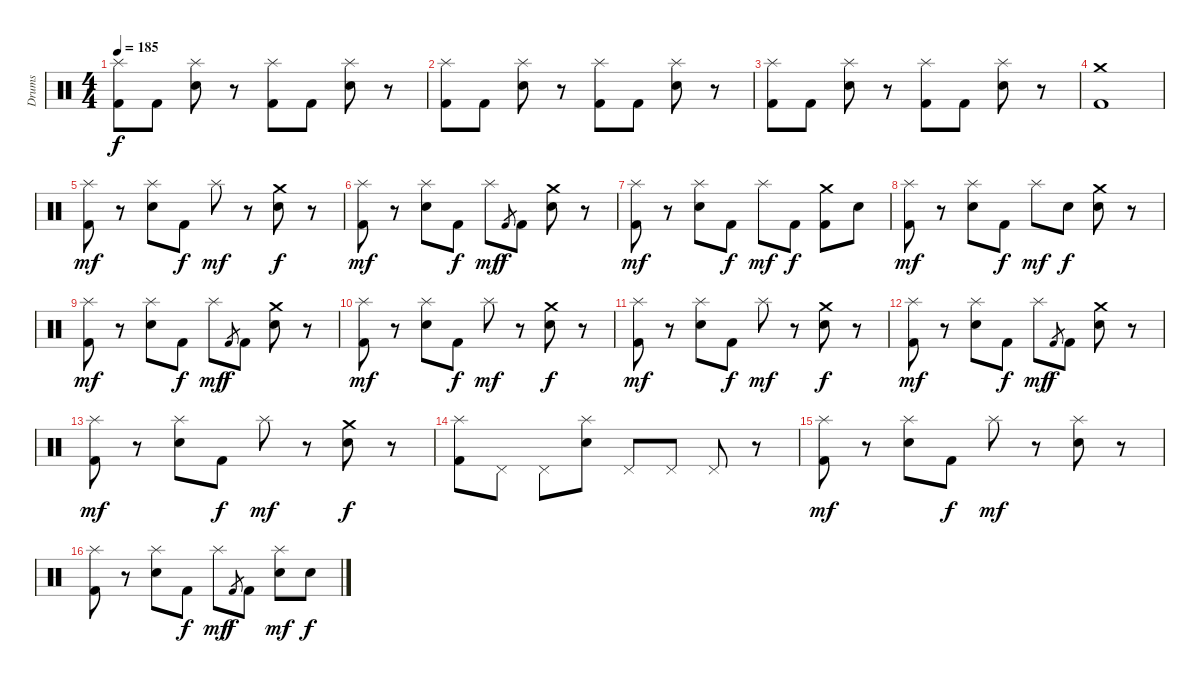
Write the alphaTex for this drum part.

\track ("Drums" "Drums") {instrument percussion}
\staff {score}
\articulation defaults
\ts (4 4)
\tempo 185
\clef neutral
\ks c
("Splash (hit)" "Kick (hit) 2").8{dy f} "Kick (hit) 2".8 ("Splash (hit)" "Electric Snare (hit)").8 r.8 ("Splash (hit)" "Kick (hit) 2").8 "Kick (hit) 2".8 ("Splash (hit)" "Electric Snare (hit)").8 r.8 |
("Splash (hit)" "Kick (hit) 2").8 "Kick (hit) 2".8 ("Splash (hit)" "Electric Snare (hit)").8 r.8 ("Splash (hit)" "Kick (hit) 2").8 "Kick (hit) 2".8 ("Splash (hit)" "Electric Snare (hit)").8 r.8 |
("Splash (hit)" "Kick (hit) 2").8 "Kick (hit) 2".8 ("Splash (hit)" "Electric Snare (hit)").8 r.8 ("Splash (hit)" "Kick (hit) 2").8 "Kick (hit) 2".8 ("Splash (hit)" "Electric Snare (hit)").8 r.8 |
("Crash medium (hit)" "Kick (hit) 2").1 |
("Splash (hit)" "Kick (hit) 2").8{dy mf} r.8 ("Splash (hit)" "Electric Snare (hit)").8 "Kick (hit) 2".8{dy f} "Splash (hit)".8{dy mf} r.8 ("Crash medium (hit)" "Electric Snare (hit)").8{dy f} r.8 |
("Splash (hit)" "Kick (hit) 2").8{dy mf} r.8 ("Splash (hit)" "Electric Snare (hit)").8 "Kick (hit) 2".8{dy f} "Splash (hit)".8{dy mf} "Kick (hit) 2".8{gr dy f} "Kick (hit) 2".8 ("Crash medium (hit)" "Electric Snare (hit)").8 r.8 |
("Splash (hit)" "Kick (hit) 2").8{dy mf} r.8 ("Splash (hit)" "Electric Snare (hit)").8 "Kick (hit) 2".8{dy f} "Splash (hit)".8{dy mf} "Kick (hit) 2".8{dy f} ("Crash medium (hit)" "Kick (hit) 2").8 "Electric Snare (hit)".8 |
("Splash (hit)" "Kick (hit) 2").8{dy mf} r.8 ("Splash (hit)" "Electric Snare (hit)").8 "Kick (hit) 2".8{dy f} "Splash (hit)".8{dy mf} "Electric Snare (hit)".8{dy f} ("Crash medium (hit)" "Electric Snare (hit)").8 r.8 |
("Splash (hit)" "Kick (hit) 2").8{dy mf} r.8 ("Splash (hit)" "Electric Snare (hit)").8 "Kick (hit) 2".8{dy f} "Splash (hit)".8{dy mf} "Kick (hit) 2".8{gr dy f} "Kick (hit) 2".8 ("Crash medium (hit)" "Electric Snare (hit)").8 r.8 |
("Splash (hit)" "Kick (hit) 2").8{dy mf} r.8 ("Splash (hit)" "Electric Snare (hit)").8 "Kick (hit) 2".8{dy f} "Splash (hit)".8{dy mf} r.8 ("Crash medium (hit)" "Electric Snare (hit)").8{dy f} r.8 |
("Splash (hit)" "Kick (hit) 2").8{dy mf} r.8 ("Splash (hit)" "Electric Snare (hit)").8 "Kick (hit) 2".8{dy f} "Splash (hit)".8{dy mf} r.8 ("Crash medium (hit)" "Electric Snare (hit)").8{dy f} r.8 |
("Splash (hit)" "Kick (hit) 2").8{dy mf} r.8 ("Splash (hit)" "Electric Snare (hit)").8 "Kick (hit) 2".8{dy f} "Splash (hit)".8{dy mf} "Kick (hit) 2".8{gr dy f} "Kick (hit) 2".8 ("Crash medium (hit)" "Electric Snare (hit)").8 r.8 |
("Splash (hit)" "Kick (hit) 2").8{dy mf} r.8 ("Splash (hit)" "Electric Snare (hit)").8 "Kick (hit) 2".8{dy f} "Splash (hit)".8{dy mf} r.8 ("Crash medium (hit)" "Electric Snare (hit)").8{dy f} r.8 |
("Splash (hit)" "Kick (hit) 2").8 "Pedal Hi-Hat (hit)".8 "Pedal Hi-Hat (hit)".8 ("Splash (hit)" "Electric Snare (hit)").8 "Pedal Hi-Hat (hit)".8 "Pedal Hi-Hat (hit)".8 "Pedal Hi-Hat (hit)".8 r.8 |
("Splash (hit)" "Kick (hit) 2").8{dy mf} r.8 ("Splash (hit)" "Electric Snare (hit)").8 "Kick (hit) 2".8{dy f} "Splash (hit)".8{dy mf} r.8 ("Splash (hit)" "Electric Snare (hit)").8 r.8 |
("Splash (hit)" "Kick (hit) 2").8 r.8 ("Splash (hit)" "Electric Snare (hit)").8 "Kick (hit) 2".8{dy f} "Splash (hit)".8{dy mf} "Kick (hit) 2".8{gr dy f} "Kick (hit) 2".8 ("Splash (hit)" "Electric Snare (hit)").8{dy mf} "Electric Snare (hit)".8{dy f}
